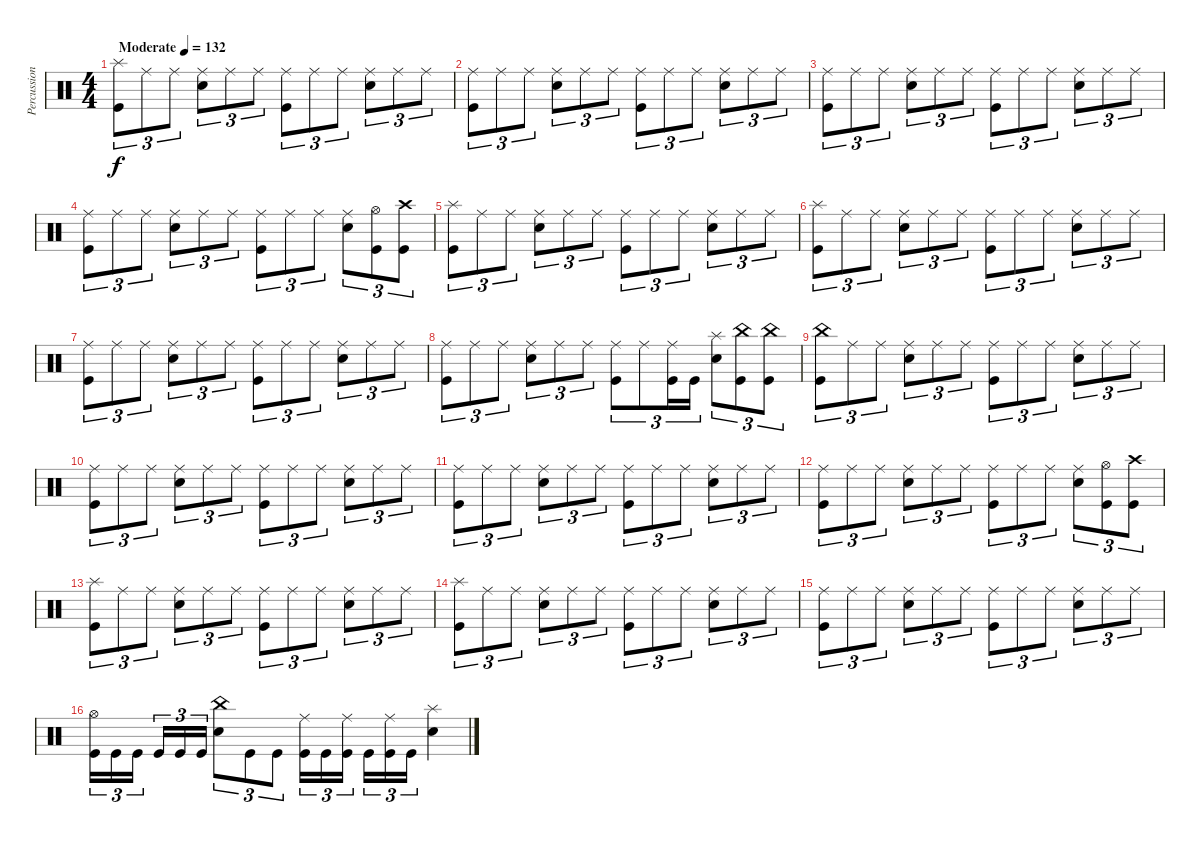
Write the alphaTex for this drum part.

\track ("Percussion" "Percussion") {instrument percussion}
\staff {score}
\articulation defaults
\ts (4 4)
\tempo (132 "Moderate")
\clef neutral
\ks c
("Kick (hit)" "Splash (hit)").8{tu (3 2) dy f} "Ride (middle)".8{tu (3 2)} "Ride (middle)".8{tu (3 2)} ("Electric Snare (hit)" "Ride (middle)").8{tu (3 2)} "Ride (middle)".8{tu (3 2)} "Ride (middle)".8{tu (3 2)} ("Kick (hit)" "Ride (middle)").8{tu (3 2)} "Ride (middle)".8{tu (3 2)} "Ride (middle)".8{tu (3 2)} ("Electric Snare (hit)" "Ride (middle)").8{tu (3 2)} "Ride (middle)".8{tu (3 2)} "Ride (middle)".8{tu (3 2)} |
("Kick (hit)" "Ride (middle)").8{tu (3 2)} "Ride (middle)".8{tu (3 2)} "Ride (middle)".8{tu (3 2)} ("Electric Snare (hit)" "Ride (middle)").8{tu (3 2)} "Ride (middle)".8{tu (3 2)} "Ride (middle)".8{tu (3 2)} ("Kick (hit)" "Ride (middle)").8{tu (3 2)} "Ride (middle)".8{tu (3 2)} "Ride (middle)".8{tu (3 2)} ("Electric Snare (hit)" "Ride (middle)").8{tu (3 2)} "Ride (middle)".8{tu (3 2)} "Ride (middle)".8{tu (3 2)} |
("Kick (hit)" "Ride (middle)").8{tu (3 2)} "Ride (middle)".8{tu (3 2)} "Ride (middle)".8{tu (3 2)} ("Electric Snare (hit)" "Ride (middle)").8{tu (3 2)} "Ride (middle)".8{tu (3 2)} "Ride (middle)".8{tu (3 2)} ("Kick (hit)" "Ride (middle)").8{tu (3 2)} "Ride (middle)".8{tu (3 2)} "Ride (middle)".8{tu (3 2)} ("Electric Snare (hit)" "Ride (middle)").8{tu (3 2)} "Ride (middle)".8{tu (3 2)} "Ride (middle)".8{tu (3 2)} |
("Kick (hit)" "Ride (middle)").8{tu (3 2)} "Ride (middle)".8{tu (3 2)} "Ride (middle)".8{tu (3 2)} ("Electric Snare (hit)" "Ride (middle)").8{tu (3 2)} "Ride (middle)".8{tu (3 2)} "Ride (middle)".8{tu (3 2)} ("Kick (hit)" "Ride (middle)").8{tu (3 2)} "Ride (middle)".8{tu (3 2)} "Ride (middle)".8{tu (3 2)} ("Electric Snare (hit)" "Ride (middle)").8{tu (3 2)} ("Kick (hit)" "Hi-Hat (open)").8{tu (3 2)} ("Kick (hit)" "Crash high (hit)").8{tu (3 2)} |
("Kick (hit)" "Splash (hit)").8{tu (3 2)} "Ride (middle)".8{tu (3 2)} "Ride (middle)".8{tu (3 2)} ("Electric Snare (hit)" "Ride (middle)").8{tu (3 2)} "Ride (middle)".8{tu (3 2)} "Ride (middle)".8{tu (3 2)} ("Kick (hit)" "Ride (middle)").8{tu (3 2)} "Ride (middle)".8{tu (3 2)} "Ride (middle)".8{tu (3 2)} ("Electric Snare (hit)" "Ride (middle)").8{tu (3 2)} "Ride (middle)".8{tu (3 2)} "Ride (middle)".8{tu (3 2)} |
("Kick (hit)" "Splash (hit)").8{tu (3 2)} "Ride (middle)".8{tu (3 2)} "Ride (middle)".8{tu (3 2)} ("Electric Snare (hit)" "Ride (middle)").8{tu (3 2)} "Ride (middle)".8{tu (3 2)} "Ride (middle)".8{tu (3 2)} ("Kick (hit)" "Ride (middle)").8{tu (3 2)} "Ride (middle)".8{tu (3 2)} "Ride (middle)".8{tu (3 2)} ("Electric Snare (hit)" "Ride (middle)").8{tu (3 2)} "Ride (middle)".8{tu (3 2)} "Ride (middle)".8{tu (3 2)} |
("Kick (hit)" "Ride (middle)").8{tu (3 2)} "Ride (middle)".8{tu (3 2)} "Ride (middle)".8{tu (3 2)} ("Electric Snare (hit)" "Ride (middle)").8{tu (3 2)} "Ride (middle)".8{tu (3 2)} "Ride (middle)".8{tu (3 2)} ("Kick (hit)" "Ride (middle)").8{tu (3 2)} "Ride (middle)".8{tu (3 2)} "Ride (middle)".8{tu (3 2)} ("Electric Snare (hit)" "Ride (middle)").8{tu (3 2)} "Ride (middle)".8{tu (3 2)} "Ride (middle)".8{tu (3 2)} |
("Kick (hit)" "Ride (middle)").8{tu (3 2)} "Ride (middle)".8{tu (3 2)} "Ride (middle)".8{tu (3 2)} ("Electric Snare (hit)" "Ride (middle)").8{tu (3 2)} "Ride (middle)".8{tu (3 2)} "Ride (middle)".8{tu (3 2)} ("Kick (hit)" "Ride (middle)").8{tu (3 2)} "Ride (middle)".8{tu (3 2)} ("Kick (hit)" "Ride (middle)").16{tu (3 2)} "Kick (hit)".16{tu (3 2)} ("Electric Snare (hit)" "Splash (hit)").8{tu (3 2)} ("Kick (hit)" "China (hit)").8{tu (3 2)} ("Kick (hit)" "China (hit)").8{tu (3 2)} |
("Kick (hit)" "China (hit)").8{tu (3 2)} "Ride (middle)".8{tu (3 2)} "Ride (middle)".8{tu (3 2)} ("Electric Snare (hit)" "Ride (middle)").8{tu (3 2)} "Ride (middle)".8{tu (3 2)} "Ride (middle)".8{tu (3 2)} ("Kick (hit)" "Ride (middle)").8{tu (3 2)} "Ride (middle)".8{tu (3 2)} "Ride (middle)".8{tu (3 2)} ("Electric Snare (hit)" "Ride (middle)").8{tu (3 2)} "Ride (middle)".8{tu (3 2)} "Ride (middle)".8{tu (3 2)} |
("Kick (hit)" "Ride (middle)").8{tu (3 2)} "Ride (middle)".8{tu (3 2)} "Ride (middle)".8{tu (3 2)} ("Electric Snare (hit)" "Ride (middle)").8{tu (3 2)} "Ride (middle)".8{tu (3 2)} "Ride (middle)".8{tu (3 2)} ("Kick (hit)" "Ride (middle)").8{tu (3 2)} "Ride (middle)".8{tu (3 2)} "Ride (middle)".8{tu (3 2)} ("Electric Snare (hit)" "Ride (middle)").8{tu (3 2)} "Ride (middle)".8{tu (3 2)} "Ride (middle)".8{tu (3 2)} |
("Kick (hit)" "Ride (middle)").8{tu (3 2)} "Ride (middle)".8{tu (3 2)} "Ride (middle)".8{tu (3 2)} ("Electric Snare (hit)" "Ride (middle)").8{tu (3 2)} "Ride (middle)".8{tu (3 2)} "Ride (middle)".8{tu (3 2)} ("Kick (hit)" "Ride (middle)").8{tu (3 2)} "Ride (middle)".8{tu (3 2)} "Ride (middle)".8{tu (3 2)} ("Electric Snare (hit)" "Ride (middle)").8{tu (3 2)} "Ride (middle)".8{tu (3 2)} "Ride (middle)".8{tu (3 2)} |
("Kick (hit)" "Ride (middle)").8{tu (3 2)} "Ride (middle)".8{tu (3 2)} "Ride (middle)".8{tu (3 2)} ("Electric Snare (hit)" "Ride (middle)").8{tu (3 2)} "Ride (middle)".8{tu (3 2)} "Ride (middle)".8{tu (3 2)} ("Kick (hit)" "Ride (middle)").8{tu (3 2)} "Ride (middle)".8{tu (3 2)} "Ride (middle)".8{tu (3 2)} ("Electric Snare (hit)" "Ride (middle)").8{tu (3 2)} ("Kick (hit)" "Hi-Hat (open)").8{tu (3 2)} ("Kick (hit)" "Crash high (hit)").8{tu (3 2)} |
("Kick (hit)" "Splash (hit)").8{tu (3 2)} "Ride (middle)".8{tu (3 2)} "Ride (middle)".8{tu (3 2)} ("Electric Snare (hit)" "Ride (middle)").8{tu (3 2)} "Ride (middle)".8{tu (3 2)} "Ride (middle)".8{tu (3 2)} ("Kick (hit)" "Ride (middle)").8{tu (3 2)} "Ride (middle)".8{tu (3 2)} "Ride (middle)".8{tu (3 2)} ("Electric Snare (hit)" "Ride (middle)").8{tu (3 2)} "Ride (middle)".8{tu (3 2)} "Ride (middle)".8{tu (3 2)} |
("Kick (hit)" "Splash (hit)").8{tu (3 2)} "Ride (middle)".8{tu (3 2)} "Ride (middle)".8{tu (3 2)} ("Electric Snare (hit)" "Ride (middle)").8{tu (3 2)} "Ride (middle)".8{tu (3 2)} "Ride (middle)".8{tu (3 2)} ("Kick (hit)" "Ride (middle)").8{tu (3 2)} "Ride (middle)".8{tu (3 2)} "Ride (middle)".8{tu (3 2)} ("Electric Snare (hit)" "Ride (middle)").8{tu (3 2)} "Ride (middle)".8{tu (3 2)} "Ride (middle)".8{tu (3 2)} |
("Kick (hit)" "Ride (middle)").8{tu (3 2)} "Ride (middle)".8{tu (3 2)} "Ride (middle)".8{tu (3 2)} ("Electric Snare (hit)" "Ride (middle)").8{tu (3 2)} "Ride (middle)".8{tu (3 2)} "Ride (middle)".8{tu (3 2)} ("Kick (hit)" "Ride (middle)").8{tu (3 2)} "Ride (middle)".8{tu (3 2)} "Ride (middle)".8{tu (3 2)} ("Electric Snare (hit)" "Ride (middle)").8{tu (3 2)} "Ride (middle)".8{tu (3 2)} "Ride (middle)".8{tu (3 2)} |
("Hi-Hat (open)" "Kick (hit)").16{tu (3 2)} "Kick (hit)".16{tu (3 2)} "Kick (hit)".16{tu (3 2) beam splitsecondary} "Kick (hit)".16{tu (3 2)} "Kick (hit)".16{tu (3 2)} "Kick (hit)".16{tu (3 2)} ("China (hit)" "Electric Snare (hit)").8{tu (3 2)} "Kick (hit)".8{tu (3 2)} "Kick (hit)".8{tu (3 2)} ("Ride (middle)" "Kick (hit)").16{tu (3 2)} "Kick (hit)".16{tu (3 2)} ("Ride (middle)" "Kick (hit)").16{tu (3 2) beam splitsecondary} "Kick (hit)".16{tu (3 2)} ("Ride (middle)" "Kick (hit)").16{tu (3 2)} "Kick (hit)".16{tu (3 2)} ("Splash (hit)" "Electric Snare (hit)").4
